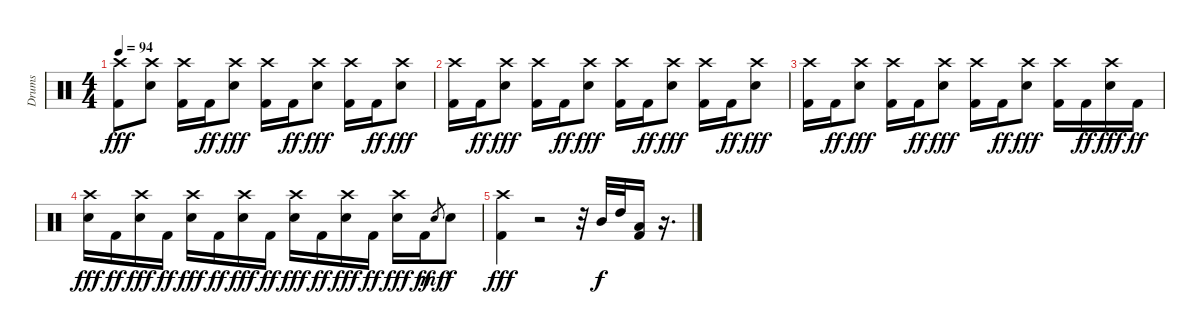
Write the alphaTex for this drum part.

\track ("Drums" "Drums") {instrument percussion}
\staff {score}
\articulation defaults
\ts (4 4)
\tempo 94
\clef neutral
\ks c
("Crash high (hit)" "Kick (hit) 2").8{dy fff} ("Crash high (hit)" "Snare (hit) 2").8 ("Crash high (hit)" "Kick (hit) 2").16 "Kick (hit) 2".16{dy ff} ("Crash high (hit)" "Snare (hit) 2").8{dy fff} ("Crash high (hit)" "Kick (hit) 2").16 "Kick (hit) 2".16{dy ff} ("Crash high (hit)" "Snare (hit) 2").8{dy fff} ("Crash high (hit)" "Kick (hit) 2").16 "Kick (hit) 2".16{dy ff} ("Crash high (hit)" "Snare (hit) 2").8{dy fff} |
("Crash high (hit)" "Kick (hit) 2").16 "Kick (hit) 2".16{dy ff} ("Crash high (hit)" "Snare (hit) 2").8{dy fff} ("Crash high (hit)" "Kick (hit) 2").16 "Kick (hit) 2".16{dy ff} ("Crash high (hit)" "Snare (hit) 2").8{dy fff} ("Crash high (hit)" "Kick (hit) 2").16 "Kick (hit) 2".16{dy ff} ("Crash high (hit)" "Snare (hit) 2").8{dy fff} ("Crash high (hit)" "Kick (hit) 2").16 "Kick (hit) 2".16{dy ff} ("Crash high (hit)" "Snare (hit) 2").8{dy fff} |
("Crash high (hit)" "Kick (hit) 2").16 "Kick (hit) 2".16{dy ff} ("Crash high (hit)" "Snare (hit) 2").8{dy fff} ("Crash high (hit)" "Kick (hit) 2").16 "Kick (hit) 2".16{dy ff} ("Crash high (hit)" "Snare (hit) 2").8{dy fff} ("Crash high (hit)" "Kick (hit) 2").16 "Kick (hit) 2".16{dy ff} ("Crash high (hit)" "Snare (hit) 2").8{dy fff} ("Crash high (hit)" "Kick (hit) 2").16 "Kick (hit) 2".16{dy ff} ("Crash high (hit)" "Snare (hit) 2").16{dy fff} "Kick (hit) 2".16{dy ff} |
("Crash high (hit)" "Snare (hit) 2").16{dy fff} "Kick (hit) 2".16{dy ff} ("Crash high (hit)" "Snare (hit) 2").16{dy fff} "Kick (hit) 2".16{dy ff} ("Crash high (hit)" "Snare (hit) 2").16{dy fff} "Kick (hit) 2".16{dy ff} ("Crash high (hit)" "Snare (hit) 2").16{dy fff} "Kick (hit) 2".16{dy ff} ("Crash high (hit)" "Snare (hit) 2").16{dy fff} "Kick (hit) 2".16{dy ff} ("Crash high (hit)" "Snare (hit) 2").16{dy fff} "Kick (hit) 2".16{dy ff} ("Crash high (hit)" "Snare (hit) 2").16{dy fff} "Kick (hit) 2".16{dy ff} "Snare (hit)".8{gr dy mf} "Snare (hit) 2".8{dy f} |
("Crash high (hit)" "Kick (hit) 2").4{dy fff} r.2 r.32 "Mid Tom (hit)".32{dy f} "High Tom (hit)".32 ("Low Floor Tom (hit)" "Kick (hit) 2").16 r.16{d}
